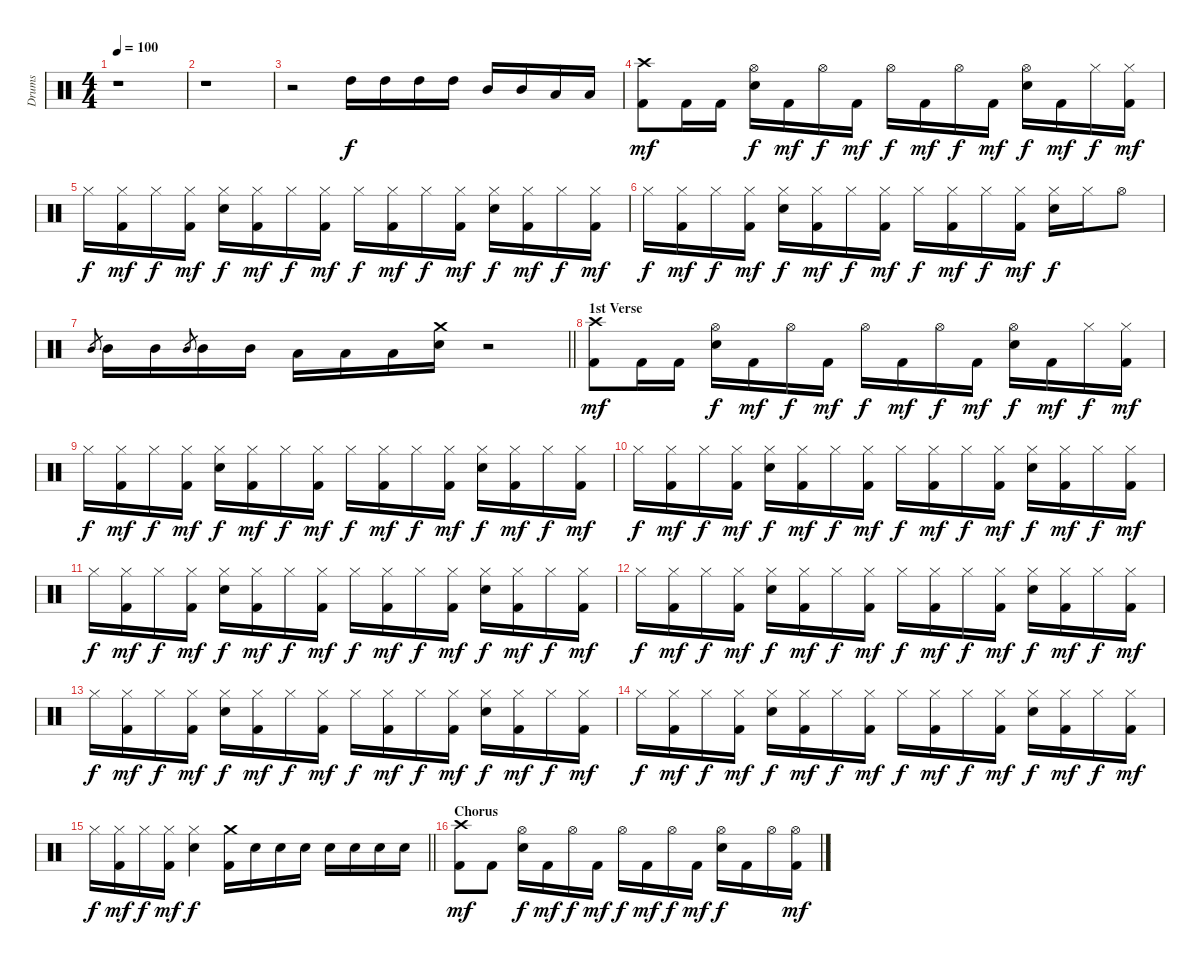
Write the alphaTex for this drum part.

\track ("Drums" "Drums") {instrument percussion}
\staff {score}
\articulation defaults
\ts (4 4)
\tempo 100
\clef neutral
\ks c
r.1{dy f} |
r.1 |
r.2 "High Tom (hit)".16 "High Tom (hit)".16 "High Tom (hit)".16 "High Tom (hit)".16 "Mid Tom (hit)".16 "Mid Tom (hit)".16 "Low Tom (hit)".16 "Low Tom (hit)".16 |
("Kick (hit) 2" "Crash high (hit)").8{dy mf} "Kick (hit) 2".16 "Kick (hit) 2".16 ("Snare (hit) 2" "Hi-Hat (open)").16{dy f} "Kick (hit) 2".16{dy mf} "Hi-Hat (open)".16{dy f} "Kick (hit) 2".16{dy mf} "Hi-Hat (open)".16{dy f} "Kick (hit) 2".16{dy mf} "Hi-Hat (open)".16{dy f} "Kick (hit) 2".16{dy mf} ("Snare (hit) 2" "Hi-Hat (open)").16{dy f} "Kick (hit) 2".16{dy mf} "Hi-Hat (closed)".16{dy f} ("Kick (hit) 2" "Hi-Hat (closed)").16{dy mf} |
"Hi-Hat (closed)".16{dy f} ("Kick (hit) 2" "Hi-Hat (closed)").16{dy mf} "Hi-Hat (closed)".16{dy f} ("Kick (hit) 2" "Hi-Hat (closed)").16{dy mf} ("Snare (hit) 2" "Hi-Hat (closed)").16{dy f} ("Kick (hit) 2" "Hi-Hat (closed)").16{dy mf} "Hi-Hat (closed)".16{dy f} ("Kick (hit) 2" "Hi-Hat (closed)").16{dy mf} "Hi-Hat (closed)".16{dy f} ("Kick (hit) 2" "Hi-Hat (closed)").16{dy mf} "Hi-Hat (closed)".16{dy f} ("Kick (hit) 2" "Hi-Hat (closed)").16{dy mf} ("Snare (hit) 2" "Hi-Hat (closed)").16{dy f} ("Kick (hit) 2" "Hi-Hat (closed)").16{dy mf} "Hi-Hat (closed)".16{dy f} ("Kick (hit) 2" "Hi-Hat (closed)").16{dy mf} |
"Hi-Hat (closed)".16{dy f} ("Kick (hit) 2" "Hi-Hat (closed)").16{dy mf} "Hi-Hat (closed)".16{dy f} ("Kick (hit) 2" "Hi-Hat (closed)").16{dy mf} ("Snare (hit) 2" "Hi-Hat (closed)").16{dy f} ("Kick (hit) 2" "Hi-Hat (closed)").16{dy mf} "Hi-Hat (closed)".16{dy f} ("Kick (hit) 2" "Hi-Hat (closed)").16{dy mf} "Hi-Hat (closed)".16{dy f} ("Kick (hit) 2" "Hi-Hat (closed)").16{dy mf} "Hi-Hat (closed)".16{dy f} ("Kick (hit) 2" "Hi-Hat (closed)").16{dy mf} ("Snare (hit) 2" "Hi-Hat (closed)").16{dy f} "Hi-Hat (closed)".16 "Hi-Hat (open)".8 |
\barLineRight lightlight "Mid Tom (hit)".8{gr} "Mid Tom (hit)".16 "Mid Tom (hit)".16 "Mid Tom (hit)".8{gr} "Mid Tom (hit)".16 "Mid Tom (hit)".16 "Low Tom (hit)".16 "Low Tom (hit)".16 "Low Tom (hit)".16
("Snare (hit) 2" "Crash medium (hit)").16 r.2 |
\section ("" "1st Verse")
("Kick (hit) 2" "Crash high (hit)").8{dy mf} "Kick (hit) 2".16 "Kick (hit) 2".16 ("Snare (hit) 2" "Hi-Hat (open)").16{dy f} "Kick (hit) 2".16{dy mf} "Hi-Hat (open)".16{dy f} "Kick (hit) 2".16{dy mf} "Hi-Hat (open)".16{dy f} "Kick (hit) 2".16{dy mf} "Hi-Hat (open)".16{dy f} "Kick (hit) 2".16{dy mf} ("Snare (hit) 2" "Hi-Hat (open)").16{dy f} "Kick (hit) 2".16{dy mf} "Hi-Hat (closed)".16{dy f} ("Kick (hit) 2" "Hi-Hat (closed)").16{dy mf} |
"Hi-Hat (closed)".16{dy f} ("Kick (hit) 2" "Hi-Hat (closed)").16{dy mf} "Hi-Hat (closed)".16{dy f} ("Kick (hit) 2" "Hi-Hat (closed)").16{dy mf} ("Snare (hit) 2" "Hi-Hat (closed)").16{dy f} ("Kick (hit) 2" "Hi-Hat (closed)").16{dy mf} "Hi-Hat (closed)".16{dy f} ("Kick (hit) 2" "Hi-Hat (closed)").16{dy mf} "Hi-Hat (closed)".16{dy f} ("Kick (hit) 2" "Hi-Hat (closed)").16{dy mf} "Hi-Hat (closed)".16{dy f} ("Kick (hit) 2" "Hi-Hat (closed)").16{dy mf} ("Snare (hit) 2" "Hi-Hat (closed)").16{dy f} ("Kick (hit) 2" "Hi-Hat (closed)").16{dy mf} "Hi-Hat (closed)".16{dy f} ("Kick (hit) 2" "Hi-Hat (closed)").16{dy mf} |
"Hi-Hat (closed)".16{dy f} ("Kick (hit) 2" "Hi-Hat (closed)").16{dy mf} "Hi-Hat (closed)".16{dy f} ("Kick (hit) 2" "Hi-Hat (closed)").16{dy mf} ("Snare (hit) 2" "Hi-Hat (closed)").16{dy f} ("Kick (hit) 2" "Hi-Hat (closed)").16{dy mf} "Hi-Hat (closed)".16{dy f} ("Kick (hit) 2" "Hi-Hat (closed)").16{dy mf} "Hi-Hat (closed)".16{dy f} ("Kick (hit) 2" "Hi-Hat (closed)").16{dy mf} "Hi-Hat (closed)".16{dy f} ("Kick (hit) 2" "Hi-Hat (closed)").16{dy mf} ("Snare (hit) 2" "Hi-Hat (closed)").16{dy f} ("Kick (hit) 2" "Hi-Hat (closed)").16{dy mf} "Hi-Hat (closed)".16{dy f} ("Kick (hit) 2" "Hi-Hat (closed)").16{dy mf} |
"Hi-Hat (closed)".16{dy f} ("Kick (hit) 2" "Hi-Hat (closed)").16{dy mf} "Hi-Hat (closed)".16{dy f} ("Kick (hit) 2" "Hi-Hat (closed)").16{dy mf} ("Snare (hit) 2" "Hi-Hat (closed)").16{dy f} ("Kick (hit) 2" "Hi-Hat (closed)").16{dy mf} "Hi-Hat (closed)".16{dy f} ("Kick (hit) 2" "Hi-Hat (closed)").16{dy mf} "Hi-Hat (closed)".16{dy f} ("Kick (hit) 2" "Hi-Hat (closed)").16{dy mf} "Hi-Hat (closed)".16{dy f} ("Kick (hit) 2" "Hi-Hat (closed)").16{dy mf} ("Snare (hit) 2" "Hi-Hat (closed)").16{dy f} ("Kick (hit) 2" "Hi-Hat (closed)").16{dy mf} "Hi-Hat (closed)".16{dy f} ("Kick (hit) 2" "Hi-Hat (closed)").16{dy mf} |
"Hi-Hat (closed)".16{dy f} ("Kick (hit) 2" "Hi-Hat (closed)").16{dy mf} "Hi-Hat (closed)".16{dy f} ("Kick (hit) 2" "Hi-Hat (closed)").16{dy mf} ("Snare (hit) 2" "Hi-Hat (closed)").16{dy f} ("Kick (hit) 2" "Hi-Hat (closed)").16{dy mf} "Hi-Hat (closed)".16{dy f} ("Kick (hit) 2" "Hi-Hat (closed)").16{dy mf} "Hi-Hat (closed)".16{dy f} ("Kick (hit) 2" "Hi-Hat (closed)").16{dy mf} "Hi-Hat (closed)".16{dy f} ("Kick (hit) 2" "Hi-Hat (closed)").16{dy mf} ("Snare (hit) 2" "Hi-Hat (closed)").16{dy f} ("Kick (hit) 2" "Hi-Hat (closed)").16{dy mf} "Hi-Hat (closed)".16{dy f} ("Kick (hit) 2" "Hi-Hat (closed)").16{dy mf} |
"Hi-Hat (closed)".16{dy f} ("Kick (hit) 2" "Hi-Hat (closed)").16{dy mf} "Hi-Hat (closed)".16{dy f} ("Kick (hit) 2" "Hi-Hat (closed)").16{dy mf} ("Snare (hit) 2" "Hi-Hat (closed)").16{dy f} ("Kick (hit) 2" "Hi-Hat (closed)").16{dy mf} "Hi-Hat (closed)".16{dy f} ("Kick (hit) 2" "Hi-Hat (closed)").16{dy mf} "Hi-Hat (closed)".16{dy f} ("Kick (hit) 2" "Hi-Hat (closed)").16{dy mf} "Hi-Hat (closed)".16{dy f} ("Kick (hit) 2" "Hi-Hat (closed)").16{dy mf} ("Snare (hit) 2" "Hi-Hat (closed)").16{dy f} ("Kick (hit) 2" "Hi-Hat (closed)").16{dy mf} "Hi-Hat (closed)".16{dy f} ("Kick (hit) 2" "Hi-Hat (closed)").16{dy mf} |
"Hi-Hat (closed)".16{dy f} ("Kick (hit) 2" "Hi-Hat (closed)").16{dy mf} "Hi-Hat (closed)".16{dy f} ("Kick (hit) 2" "Hi-Hat (closed)").16{dy mf} ("Snare (hit) 2" "Hi-Hat (closed)").16{dy f} ("Kick (hit) 2" "Hi-Hat (closed)").16{dy mf} "Hi-Hat (closed)".16{dy f} ("Kick (hit) 2" "Hi-Hat (closed)").16{dy mf} "Hi-Hat (closed)".16{dy f} ("Kick (hit) 2" "Hi-Hat (closed)").16{dy mf} "Hi-Hat (closed)".16{dy f} ("Kick (hit) 2" "Hi-Hat (closed)").16{dy mf} ("Snare (hit) 2" "Hi-Hat (closed)").16{dy f} ("Kick (hit) 2" "Hi-Hat (closed)").16{dy mf} "Hi-Hat (closed)".16{dy f} ("Kick (hit) 2" "Hi-Hat (closed)").16{dy mf} |
\barLineRight lightlight "Hi-Hat (closed)".16{dy f}
("Kick (hit) 2" "Hi-Hat (closed)").16{dy mf} "Hi-Hat (closed)".16{dy f} ("Kick (hit) 2" "Hi-Hat (closed)").16{dy mf} ("Snare (hit) 2" "Hi-Hat (closed)").4{dy f} ("Kick (hit) 2" "Crash medium (hit)").16 "Snare (hit) 2".16 "Snare (hit) 2".16 "Snare (hit) 2".16 "Snare (hit) 2".16 "Snare (hit) 2".16 "Snare (hit) 2".16 "Snare (hit) 2".16 |
\section ("" "Chorus")
("Kick (hit) 2" "Crash high (hit)").8{dy mf} "Kick (hit) 2".8 ("Snare (hit) 2" "Hi-Hat (open)").16{dy f} "Kick (hit) 2".16{dy mf} "Hi-Hat (open)".16{dy f} "Kick (hit) 2".16{dy mf} "Hi-Hat (open)".16{dy f} "Kick (hit) 2".16{dy mf} "Hi-Hat (open)".16{dy f} "Kick (hit) 2".16{dy mf} ("Snare (hit) 2" "Hi-Hat (open)").16{dy f} "Kick (hit) 2".16 "Hi-Hat (open)".16 ("Kick (hit) 2" "Hi-Hat (open)").16{dy mf}
